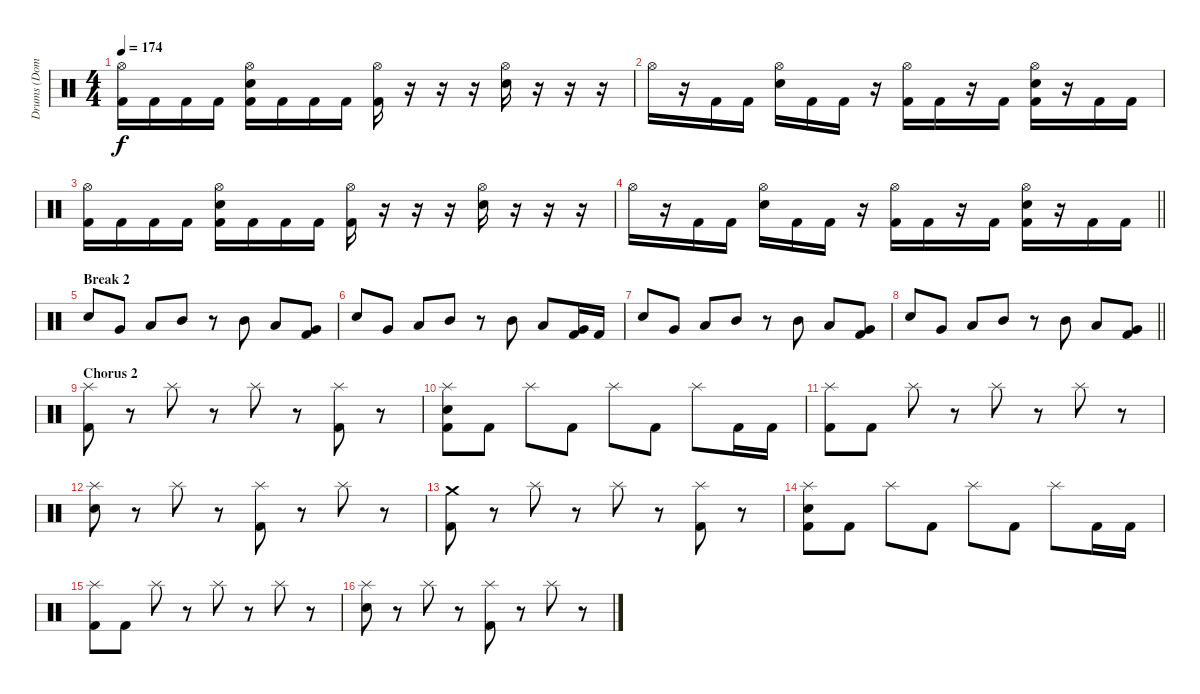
\track ("Drums (Dominik)" "Drums (Dom") {instrument percussion}
\staff {score}
\articulation defaults
\ts (4 4)
\tempo 174
\clef neutral
\ks c
("Hi-Hat (open)" "Kick (hit) 2").16{dy f} "Kick (hit) 2".16 "Kick (hit) 2".16 "Kick (hit) 2".16 ("Hi-Hat (open)" "Electric Snare (hit)" "Kick (hit) 2").16 "Kick (hit) 2".16 "Kick (hit) 2".16 "Kick (hit) 2".16 ("Hi-Hat (open)" "Kick (hit) 2").16 r.16 r.16 r.16 ("Hi-Hat (open)" "Electric Snare (hit)").16 r.16 r.16 r.16 |
"Hi-Hat (open)".16 r.16 "Kick (hit) 2".16 "Kick (hit) 2".16 ("Hi-Hat (open)" "Electric Snare (hit)").16 "Kick (hit) 2".16 "Kick (hit) 2".16 r.16 ("Hi-Hat (open)" "Kick (hit) 2").16 "Kick (hit) 2".16 r.16 "Kick (hit) 2".16 ("Hi-Hat (open)" "Electric Snare (hit)" "Kick (hit) 2").16 r.16 "Kick (hit) 2".16 "Kick (hit) 2".16 |
("Hi-Hat (open)" "Kick (hit) 2").16 "Kick (hit) 2".16 "Kick (hit) 2".16 "Kick (hit) 2".16 ("Hi-Hat (open)" "Electric Snare (hit)" "Kick (hit) 2").16 "Kick (hit) 2".16 "Kick (hit) 2".16 "Kick (hit) 2".16 ("Hi-Hat (open)" "Kick (hit) 2").16 r.16 r.16 r.16 ("Hi-Hat (open)" "Electric Snare (hit)").16 r.16 r.16 r.16 |
\barLineRight lightlight "Hi-Hat (open)".16
r.16 "Kick (hit) 2".16 "Kick (hit) 2".16 ("Hi-Hat (open)" "Electric Snare (hit)").16 "Kick (hit) 2".16 "Kick (hit) 2".16 r.16 ("Hi-Hat (open)" "Kick (hit) 2").16 "Kick (hit) 2".16 r.16 "Kick (hit) 2".16 ("Hi-Hat (open)" "Electric Snare (hit)" "Kick (hit) 2").16 r.16 "Kick (hit) 2".16 "Kick (hit) 2".16 |
\section ("" "Break 2")
"Electric Snare (hit)".8 "Very Low Tom (hit)".8 "Low Tom (hit)".8 "Mid Tom (hit)".8 r.8 "Mid Tom (hit)".8 "Low Tom (hit)".8 ("Very Low Tom (hit)" "Kick (hit) 2").8 |
"Electric Snare (hit)".8 "Very Low Tom (hit)".8 "Low Tom (hit)".8 "Mid Tom (hit)".8 r.8 "Mid Tom (hit)".8 "Low Tom (hit)".8 ("Very Low Tom (hit)" "Kick (hit) 2").16 "Kick (hit) 2".16 |
"Electric Snare (hit)".8 "Very Low Tom (hit)".8 "Low Tom (hit)".8 "Mid Tom (hit)".8 r.8 "Mid Tom (hit)".8 "Low Tom (hit)".8 ("Very Low Tom (hit)" "Kick (hit) 2").8 |
\barLineRight lightlight "Electric Snare (hit)".8 "Very Low Tom (hit)".8 "Low Tom (hit)".8 "Mid Tom (hit)".8
r.8 "Mid Tom (hit)".8 "Low Tom (hit)".8 ("Very Low Tom (hit)" "Kick (hit) 2").8 |
\section ("" "Chorus 2")
("Splash (hit)" "Kick (hit) 2").8 r.8 "Splash (hit)".8 r.8 "Splash (hit)".8 r.8 ("Splash (hit)" "Kick (hit) 2").8 r.8 |
("Splash (hit)" "Electric Snare (hit)" "Kick (hit) 2").8 "Kick (hit) 2".8 "Splash (hit)".8 "Kick (hit) 2".8 "Splash (hit)".8 "Kick (hit) 2".8 "Splash (hit)".8 "Kick (hit) 2".16 "Kick (hit) 2".16 |
("Splash (hit)" "Kick (hit) 2").8 "Kick (hit) 2".8 "Splash (hit)".8 r.8 "Splash (hit)".8 r.8 "Splash (hit)".8 r.8 |
("Splash (hit)" "Electric Snare (hit)").8 r.8 "Splash (hit)".8 r.8 ("Splash (hit)" "Kick (hit) 2").8 r.8 "Splash (hit)".8 r.8 |
("Crash medium (hit)" "Kick (hit) 2").8 r.8 "Splash (hit)".8 r.8 "Splash (hit)".8 r.8 ("Splash (hit)" "Kick (hit) 2").8 r.8 |
("Splash (hit)" "Electric Snare (hit)" "Kick (hit) 2").8 "Kick (hit) 2".8 "Splash (hit)".8 "Kick (hit) 2".8 "Splash (hit)".8 "Kick (hit) 2".8 "Splash (hit)".8 "Kick (hit) 2".16 "Kick (hit) 2".16 |
("Splash (hit)" "Kick (hit) 2").8 "Kick (hit) 2".8 "Splash (hit)".8 r.8 "Splash (hit)".8 r.8 "Splash (hit)".8 r.8 |
("Splash (hit)" "Electric Snare (hit)").8 r.8 "Splash (hit)".8 r.8 ("Splash (hit)" "Kick (hit) 2").8 r.8 "Splash (hit)".8 r.8
